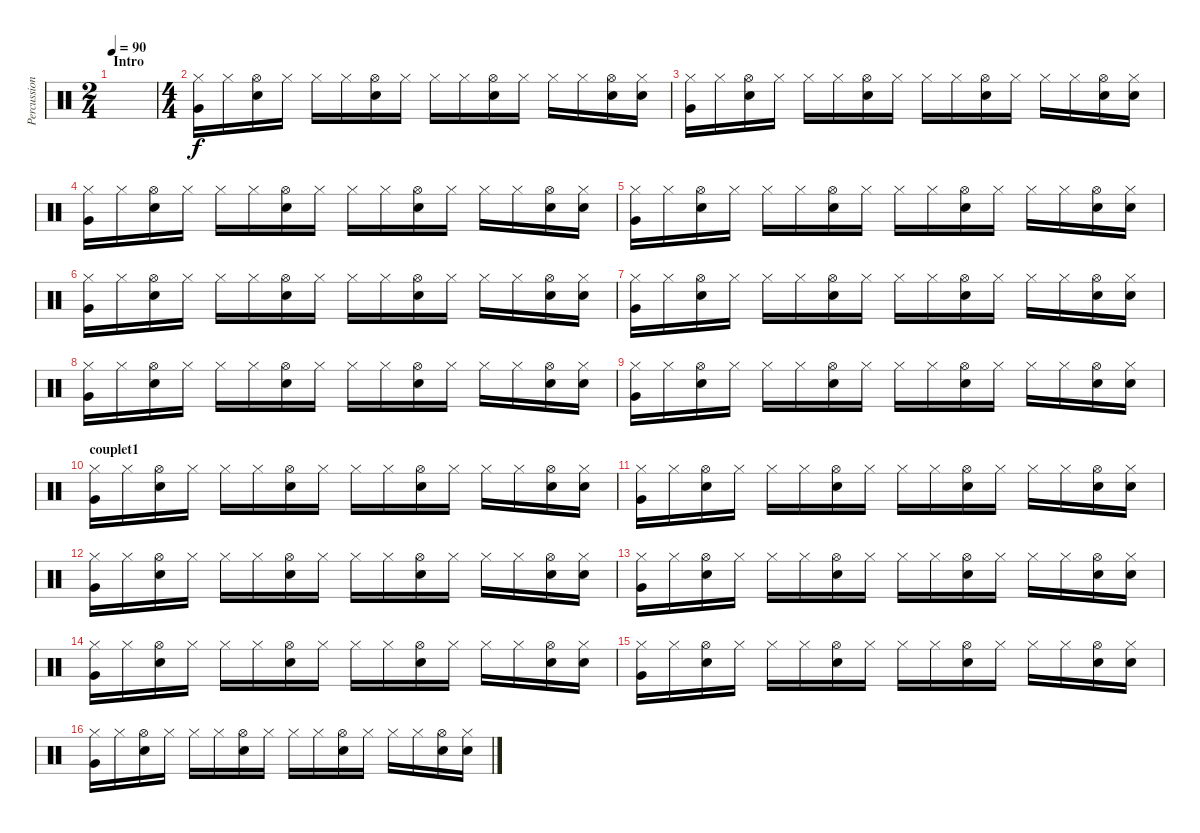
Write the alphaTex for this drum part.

\track ("Percussions" "Percussion") {instrument percussion}
\staff {score}
\articulation defaults
\ts (2 4)
\section ("" "Intro")
\tempo 90
\clef neutral
\ks aminor
|
\ts (4 4)
("Hi-Hat (closed)" "Very Low Tom (hit)").16 "Hi-Hat (closed)".16 ("Snare (hit) 2" "Hi-Hat (open)").16 "Hi-Hat (closed)".16 "Hi-Hat (closed)".16 "Hi-Hat (closed)".16 ("Snare (hit) 2" "Hi-Hat (open)").16 "Hi-Hat (closed)".16 "Hi-Hat (closed)".16 "Hi-Hat (closed)".16 ("Snare (hit) 2" "Hi-Hat (open)").16 "Hi-Hat (closed)".16 "Hi-Hat (closed)".16 "Hi-Hat (closed)".16 ("Snare (hit) 2" "Hi-Hat (open)").16 ("Snare (hit) 2" "Hi-Hat (closed)").16 |
("Hi-Hat (closed)" "Very Low Tom (hit)").16 "Hi-Hat (closed)".16 ("Snare (hit) 2" "Hi-Hat (open)").16 "Hi-Hat (closed)".16 "Hi-Hat (closed)".16 "Hi-Hat (closed)".16 ("Snare (hit) 2" "Hi-Hat (open)").16 "Hi-Hat (closed)".16 "Hi-Hat (closed)".16 "Hi-Hat (closed)".16 ("Snare (hit) 2" "Hi-Hat (open)").16 "Hi-Hat (closed)".16 "Hi-Hat (closed)".16 "Hi-Hat (closed)".16 ("Snare (hit) 2" "Hi-Hat (open)").16 ("Snare (hit) 2" "Hi-Hat (closed)").16 |
("Hi-Hat (closed)" "Very Low Tom (hit)").16 "Hi-Hat (closed)".16 ("Snare (hit) 2" "Hi-Hat (open)").16 "Hi-Hat (closed)".16 "Hi-Hat (closed)".16 "Hi-Hat (closed)".16 ("Snare (hit) 2" "Hi-Hat (open)").16 "Hi-Hat (closed)".16 "Hi-Hat (closed)".16 "Hi-Hat (closed)".16 ("Snare (hit) 2" "Hi-Hat (open)").16 "Hi-Hat (closed)".16 "Hi-Hat (closed)".16 "Hi-Hat (closed)".16 ("Snare (hit) 2" "Hi-Hat (open)").16 ("Snare (hit) 2" "Hi-Hat (closed)").16 |
("Hi-Hat (closed)" "Very Low Tom (hit)").16 "Hi-Hat (closed)".16 ("Snare (hit) 2" "Hi-Hat (open)").16 "Hi-Hat (closed)".16 "Hi-Hat (closed)".16 "Hi-Hat (closed)".16 ("Snare (hit) 2" "Hi-Hat (open)").16 "Hi-Hat (closed)".16 "Hi-Hat (closed)".16 "Hi-Hat (closed)".16 ("Snare (hit) 2" "Hi-Hat (open)").16 "Hi-Hat (closed)".16 "Hi-Hat (closed)".16 "Hi-Hat (closed)".16 ("Snare (hit) 2" "Hi-Hat (open)").16 ("Snare (hit) 2" "Hi-Hat (closed)").16 |
("Hi-Hat (closed)" "Very Low Tom (hit)").16 "Hi-Hat (closed)".16 ("Snare (hit) 2" "Hi-Hat (open)").16 "Hi-Hat (closed)".16 "Hi-Hat (closed)".16 "Hi-Hat (closed)".16 ("Snare (hit) 2" "Hi-Hat (open)").16 "Hi-Hat (closed)".16 "Hi-Hat (closed)".16 "Hi-Hat (closed)".16 ("Snare (hit) 2" "Hi-Hat (open)").16 "Hi-Hat (closed)".16 "Hi-Hat (closed)".16 "Hi-Hat (closed)".16 ("Snare (hit) 2" "Hi-Hat (open)").16 ("Snare (hit) 2" "Hi-Hat (closed)").16 |
("Hi-Hat (closed)" "Very Low Tom (hit)").16 "Hi-Hat (closed)".16 ("Snare (hit) 2" "Hi-Hat (open)").16 "Hi-Hat (closed)".16 "Hi-Hat (closed)".16 "Hi-Hat (closed)".16 ("Snare (hit) 2" "Hi-Hat (open)").16 "Hi-Hat (closed)".16 "Hi-Hat (closed)".16 "Hi-Hat (closed)".16 ("Snare (hit) 2" "Hi-Hat (open)").16 "Hi-Hat (closed)".16 "Hi-Hat (closed)".16 "Hi-Hat (closed)".16 ("Snare (hit) 2" "Hi-Hat (open)").16 ("Snare (hit) 2" "Hi-Hat (closed)").16 |
("Hi-Hat (closed)" "Very Low Tom (hit)").16 "Hi-Hat (closed)".16 ("Snare (hit) 2" "Hi-Hat (open)").16 "Hi-Hat (closed)".16 "Hi-Hat (closed)".16 "Hi-Hat (closed)".16 ("Snare (hit) 2" "Hi-Hat (open)").16 "Hi-Hat (closed)".16 "Hi-Hat (closed)".16 "Hi-Hat (closed)".16 ("Snare (hit) 2" "Hi-Hat (open)").16 "Hi-Hat (closed)".16 "Hi-Hat (closed)".16 "Hi-Hat (closed)".16 ("Snare (hit) 2" "Hi-Hat (open)").16 ("Snare (hit) 2" "Hi-Hat (closed)").16 |
("Hi-Hat (closed)" "Very Low Tom (hit)").16 "Hi-Hat (closed)".16 ("Snare (hit) 2" "Hi-Hat (open)").16 "Hi-Hat (closed)".16 "Hi-Hat (closed)".16 "Hi-Hat (closed)".16 ("Snare (hit) 2" "Hi-Hat (open)").16 "Hi-Hat (closed)".16 "Hi-Hat (closed)".16 "Hi-Hat (closed)".16 ("Snare (hit) 2" "Hi-Hat (open)").16 "Hi-Hat (closed)".16 "Hi-Hat (closed)".16 "Hi-Hat (closed)".16 ("Snare (hit) 2" "Hi-Hat (open)").16 ("Snare (hit) 2" "Hi-Hat (closed)").16 |
\section ("" "couplet1")
("Hi-Hat (closed)" "Very Low Tom (hit)").16 "Hi-Hat (closed)".16 ("Snare (hit) 2" "Hi-Hat (open)").16 "Hi-Hat (closed)".16 "Hi-Hat (closed)".16 "Hi-Hat (closed)".16 ("Snare (hit) 2" "Hi-Hat (open)").16 "Hi-Hat (closed)".16 "Hi-Hat (closed)".16 "Hi-Hat (closed)".16 ("Snare (hit) 2" "Hi-Hat (open)").16 "Hi-Hat (closed)".16 "Hi-Hat (closed)".16 "Hi-Hat (closed)".16 ("Snare (hit) 2" "Hi-Hat (open)").16 ("Snare (hit) 2" "Hi-Hat (closed)").16 |
("Hi-Hat (closed)" "Very Low Tom (hit)").16 "Hi-Hat (closed)".16 ("Snare (hit) 2" "Hi-Hat (open)").16 "Hi-Hat (closed)".16 "Hi-Hat (closed)".16 "Hi-Hat (closed)".16 ("Snare (hit) 2" "Hi-Hat (open)").16 "Hi-Hat (closed)".16 "Hi-Hat (closed)".16 "Hi-Hat (closed)".16 ("Snare (hit) 2" "Hi-Hat (open)").16 "Hi-Hat (closed)".16 "Hi-Hat (closed)".16 "Hi-Hat (closed)".16 ("Snare (hit) 2" "Hi-Hat (open)").16 ("Snare (hit) 2" "Hi-Hat (closed)").16 |
("Hi-Hat (closed)" "Very Low Tom (hit)").16 "Hi-Hat (closed)".16 ("Snare (hit) 2" "Hi-Hat (open)").16 "Hi-Hat (closed)".16 "Hi-Hat (closed)".16 "Hi-Hat (closed)".16 ("Snare (hit) 2" "Hi-Hat (open)").16 "Hi-Hat (closed)".16 "Hi-Hat (closed)".16 "Hi-Hat (closed)".16 ("Snare (hit) 2" "Hi-Hat (open)").16 "Hi-Hat (closed)".16 "Hi-Hat (closed)".16 "Hi-Hat (closed)".16 ("Snare (hit) 2" "Hi-Hat (open)").16 ("Snare (hit) 2" "Hi-Hat (closed)").16 |
("Hi-Hat (closed)" "Very Low Tom (hit)").16 "Hi-Hat (closed)".16 ("Snare (hit) 2" "Hi-Hat (open)").16 "Hi-Hat (closed)".16 "Hi-Hat (closed)".16 "Hi-Hat (closed)".16 ("Snare (hit) 2" "Hi-Hat (open)").16 "Hi-Hat (closed)".16 "Hi-Hat (closed)".16 "Hi-Hat (closed)".16 ("Snare (hit) 2" "Hi-Hat (open)").16 "Hi-Hat (closed)".16 "Hi-Hat (closed)".16 "Hi-Hat (closed)".16 ("Snare (hit) 2" "Hi-Hat (open)").16 ("Snare (hit) 2" "Hi-Hat (closed)").16 |
("Hi-Hat (closed)" "Very Low Tom (hit)").16 "Hi-Hat (closed)".16 ("Snare (hit) 2" "Hi-Hat (open)").16 "Hi-Hat (closed)".16 "Hi-Hat (closed)".16 "Hi-Hat (closed)".16 ("Snare (hit) 2" "Hi-Hat (open)").16 "Hi-Hat (closed)".16 "Hi-Hat (closed)".16 "Hi-Hat (closed)".16 ("Snare (hit) 2" "Hi-Hat (open)").16 "Hi-Hat (closed)".16 "Hi-Hat (closed)".16 "Hi-Hat (closed)".16 ("Snare (hit) 2" "Hi-Hat (open)").16 ("Snare (hit) 2" "Hi-Hat (closed)").16 |
("Hi-Hat (closed)" "Very Low Tom (hit)").16 "Hi-Hat (closed)".16 ("Snare (hit) 2" "Hi-Hat (open)").16 "Hi-Hat (closed)".16 "Hi-Hat (closed)".16 "Hi-Hat (closed)".16 ("Snare (hit) 2" "Hi-Hat (open)").16 "Hi-Hat (closed)".16 "Hi-Hat (closed)".16 "Hi-Hat (closed)".16 ("Snare (hit) 2" "Hi-Hat (open)").16 "Hi-Hat (closed)".16 "Hi-Hat (closed)".16 "Hi-Hat (closed)".16 ("Snare (hit) 2" "Hi-Hat (open)").16 ("Snare (hit) 2" "Hi-Hat (closed)").16 |
("Hi-Hat (closed)" "Very Low Tom (hit)").16 "Hi-Hat (closed)".16 ("Snare (hit) 2" "Hi-Hat (open)").16 "Hi-Hat (closed)".16 "Hi-Hat (closed)".16 "Hi-Hat (closed)".16 ("Snare (hit) 2" "Hi-Hat (open)").16 "Hi-Hat (closed)".16 "Hi-Hat (closed)".16 "Hi-Hat (closed)".16 ("Snare (hit) 2" "Hi-Hat (open)").16 "Hi-Hat (closed)".16 "Hi-Hat (closed)".16 "Hi-Hat (closed)".16 ("Snare (hit) 2" "Hi-Hat (open)").16 ("Snare (hit) 2" "Hi-Hat (closed)").16
